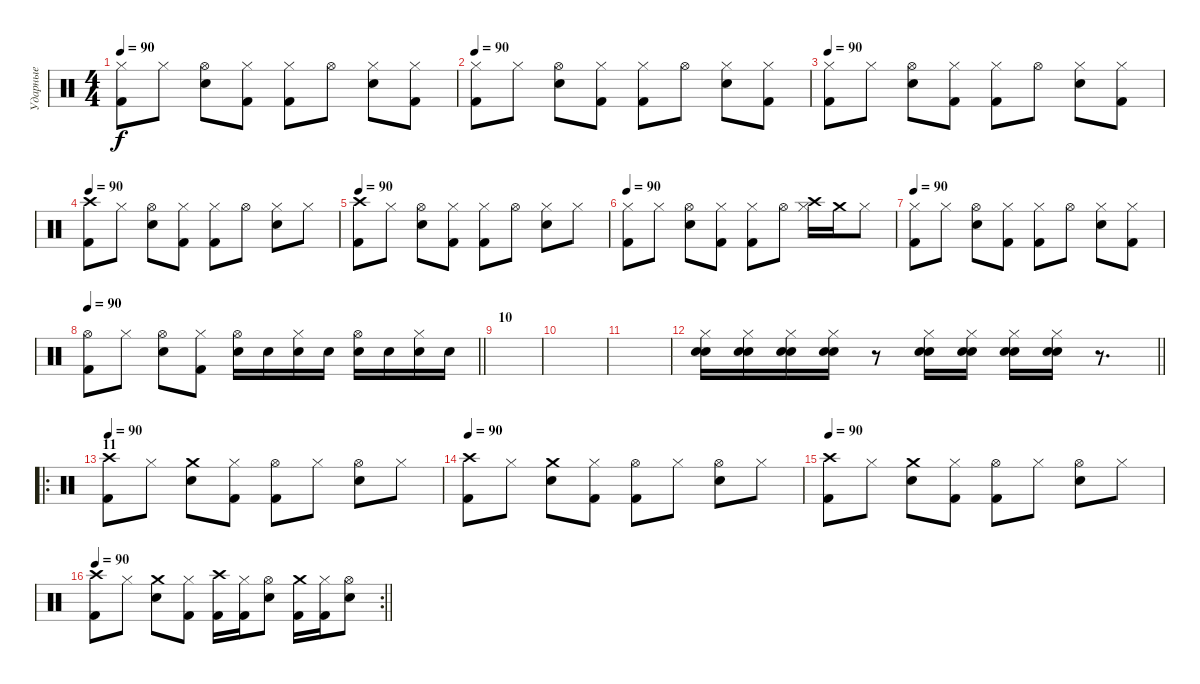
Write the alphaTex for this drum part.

\track ("Ударные" "Ударные") {solo instrument percussion}
\staff {score}
\articulation defaults
\ts (4 4)
\tempo 90
\clef neutral
\ks c
("Hi-Hat (closed)" "Kick (hit) 2").8{dy f} "Hi-Hat (closed)".8 ("Hi-Hat (open)" "Snare (hit) 2").8 ("Hi-Hat (closed)" "Kick (hit) 2").8 ("Hi-Hat (closed)" "Kick (hit) 2").8 "Hi-Hat (open)".8 ("Hi-Hat (closed)" "Snare (hit) 2").8 ("Hi-Hat (closed)" "Kick (hit) 2").8 |
\tempo 90
("Hi-Hat (closed)" "Kick (hit) 2").8 "Hi-Hat (closed)".8 ("Hi-Hat (open)" "Snare (hit) 2").8 ("Hi-Hat (closed)" "Kick (hit) 2").8 ("Hi-Hat (closed)" "Kick (hit) 2").8 "Hi-Hat (open)".8 ("Hi-Hat (closed)" "Snare (hit) 2").8 ("Hi-Hat (closed)" "Kick (hit) 2").8 |
\tempo 90
("Hi-Hat (closed)" "Kick (hit) 2").8 "Hi-Hat (closed)".8 ("Hi-Hat (open)" "Snare (hit) 2").8 ("Hi-Hat (closed)" "Kick (hit) 2").8 ("Hi-Hat (closed)" "Kick (hit) 2").8 "Hi-Hat (open)".8 ("Hi-Hat (closed)" "Snare (hit) 2").8 ("Hi-Hat (closed)" "Kick (hit) 2").8 |
\tempo 90
("Crash high (hit)" "Kick (hit) 2").8 "Hi-Hat (closed)".8 ("Hi-Hat (open)" "Snare (hit) 2").8 ("Hi-Hat (closed)" "Kick (hit) 2").8 ("Hi-Hat (closed)" "Kick (hit) 2").8 "Hi-Hat (open)".8 ("Hi-Hat (closed)" "Snare (hit) 2").8 "Hi-Hat (closed)".8 |
\tempo 90
("Crash high (hit)" "Kick (hit) 2").8 "Hi-Hat (closed)".8 ("Hi-Hat (open)" "Snare (hit) 2").8 ("Hi-Hat (closed)" "Kick (hit) 2").8 ("Hi-Hat (closed)" "Kick (hit) 2").8 "Hi-Hat (open)".8 ("Hi-Hat (closed)" "Snare (hit) 2").8 "Hi-Hat (closed)".8 |
\tempo 90
("Hi-Hat (closed)" "Kick (hit) 2").8 "Hi-Hat (closed)".8 ("Hi-Hat (open)" "Snare (hit) 2").8 ("Hi-Hat (closed)" "Kick (hit) 2").8 ("Hi-Hat (closed)" "Kick (hit) 2").8 "Hi-Hat (open)".8 ("Hi-Hat (closed)" "Crash high (hit)").16 "Crash medium (hit)".16 "Hi-Hat (closed)".8 |
\tempo 90
("Hi-Hat (closed)" "Kick (hit) 2").8 "Hi-Hat (closed)".8 ("Hi-Hat (open)" "Snare (hit) 2").8 ("Hi-Hat (closed)" "Kick (hit) 2").8 ("Hi-Hat (closed)" "Kick (hit) 2").8 "Hi-Hat (open)".8 ("Hi-Hat (closed)" "Snare (hit) 2").8 ("Hi-Hat (closed)" "Kick (hit) 2").8 |
\tempo 90
\barLineRight lightlight
("Hi-Hat (open)" "Kick (hit) 2").8 "Hi-Hat (closed)".8 ("Hi-Hat (open)" "Snare (hit) 2").8 ("Hi-Hat (closed)" "Kick (hit) 2").8 ("Hi-Hat (open)" "Snare (hit) 2").16 "Snare (hit) 2".16 ("Hi-Hat (closed)" "Snare (hit) 2").16 "Snare (hit) 2".16 ("Hi-Hat (open)" "Snare (hit) 2").16 "Snare (hit) 2".16 ("Hi-Hat (closed)" "Snare (hit) 2").16 "Snare (hit) 2".16 |
\section ("" "10")
|
|
|
\barLineRight lightlight
("Snare (hit) 2" "Hi-Hat (closed)" "Electric Snare (hit)").16 ("Snare (hit) 2" "Hi-Hat (closed)" "Electric Snare (hit)").16 ("Snare (hit) 2" "Hi-Hat (closed)" "Electric Snare (hit)").16 ("Snare (hit) 2" "Hi-Hat (closed)" "Electric Snare (hit)").16 r.8 ("Snare (hit) 2" "Hi-Hat (closed)" "Electric Snare (hit)").16 ("Snare (hit) 2" "Hi-Hat (closed)" "Electric Snare (hit)").16 ("Snare (hit) 2" "Hi-Hat (closed)" "Electric Snare (hit)").16 ("Snare (hit) 2" "Hi-Hat (closed)" "Electric Snare (hit)").16 r.8{d} |
\ro
\section ("" "11")
\tempo 90
("Crash high (hit)" "Kick (hit) 2").8 "Hi-Hat (closed)".8 ("Crash medium (hit)" "Snare (hit) 2").8 ("Hi-Hat (closed)" "Kick (hit) 2").8 ("Hi-Hat (open)" "Kick (hit) 2").8 "Hi-Hat (closed)".8 ("Hi-Hat (open)" "Snare (hit) 2").8 "Hi-Hat (closed)".8 |
\tempo 90
("Crash high (hit)" "Kick (hit) 2").8 "Hi-Hat (closed)".8 ("Crash medium (hit)" "Snare (hit) 2").8 ("Hi-Hat (closed)" "Kick (hit) 2").8 ("Hi-Hat (open)" "Kick (hit) 2").8 "Hi-Hat (closed)".8 ("Hi-Hat (open)" "Snare (hit) 2").8 "Hi-Hat (closed)".8 |
\tempo 90
("Crash high (hit)" "Kick (hit) 2").8 "Hi-Hat (closed)".8 ("Crash medium (hit)" "Snare (hit) 2").8 ("Hi-Hat (closed)" "Kick (hit) 2").8 ("Hi-Hat (open)" "Kick (hit) 2").8 "Hi-Hat (closed)".8 ("Hi-Hat (open)" "Snare (hit) 2").8 "Hi-Hat (closed)".8 |
\rc 2
\tempo 90
\barLineRight lightlight
("Crash high (hit)" "Kick (hit) 2").8 "Hi-Hat (closed)".8 ("Crash medium (hit)" "Snare (hit) 2").8 ("Hi-Hat (closed)" "Kick (hit) 2").8 ("Crash high (hit)" "Kick (hit) 2").16 ("Hi-Hat (closed)" "Kick (hit) 2").16 ("Hi-Hat (open)" "Snare (hit) 2").8 ("Crash medium (hit)" "Kick (hit) 2").16 ("Hi-Hat (closed)" "Kick (hit) 2").16 ("Hi-Hat (open)" "Snare (hit) 2").8
